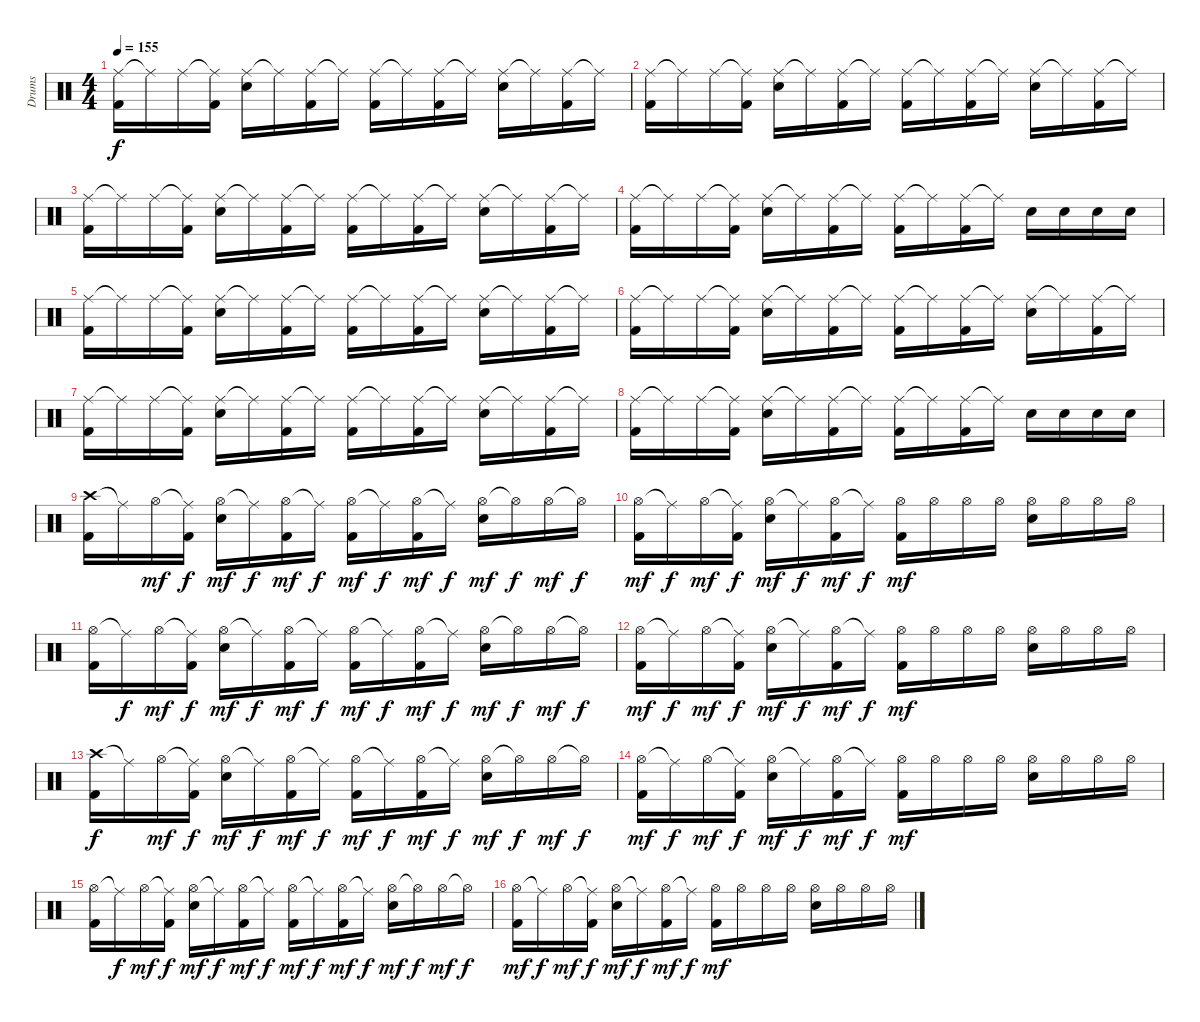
\track ("Drums" "Drums") {instrument percussion}
\staff {score}
\articulation defaults
\ts (4 4)
\tempo 155
\clef neutral
\ks c
("Ride (middle)" "Kick (hit) 2").16{dy f} "Ride (middle)"{t}.16 "Ride (middle)".16 ("Ride (middle)"{t} "Kick (hit) 2").16 ("Ride (middle)" "Electric Snare (hit)").16 "Ride (middle)"{t}.16 ("Ride (middle)" "Kick (hit) 2").16 "Ride (middle)"{t}.16 ("Ride (middle)" "Kick (hit) 2").16 "Ride (middle)"{t}.16 ("Ride (middle)" "Kick (hit) 2").16 "Ride (middle)"{t}.16 ("Ride (middle)" "Electric Snare (hit)").16 "Ride (middle)"{t}.16 ("Ride (middle)" "Kick (hit) 2").16 "Ride (middle)"{t}.16 |
("Ride (middle)" "Kick (hit) 2").16 "Ride (middle)"{t}.16 "Ride (middle)".16 ("Ride (middle)"{t} "Kick (hit) 2").16 ("Ride (middle)" "Electric Snare (hit)").16 "Ride (middle)"{t}.16 ("Ride (middle)" "Kick (hit) 2").16 "Ride (middle)"{t}.16 ("Ride (middle)" "Kick (hit) 2").16 "Ride (middle)"{t}.16 ("Ride (middle)" "Kick (hit) 2").16 "Ride (middle)"{t}.16 ("Ride (middle)" "Electric Snare (hit)").16 "Ride (middle)"{t}.16 ("Ride (middle)" "Kick (hit) 2").16 "Ride (middle)"{t}.16 |
("Ride (middle)" "Kick (hit) 2").16 "Ride (middle)"{t}.16 "Ride (middle)".16 ("Ride (middle)"{t} "Kick (hit) 2").16 ("Ride (middle)" "Electric Snare (hit)").16 "Ride (middle)"{t}.16 ("Ride (middle)" "Kick (hit) 2").16 "Ride (middle)"{t}.16 ("Ride (middle)" "Kick (hit) 2").16 "Ride (middle)"{t}.16 ("Ride (middle)" "Kick (hit) 2").16 "Ride (middle)"{t}.16 ("Ride (middle)" "Electric Snare (hit)").16 "Ride (middle)"{t}.16 ("Ride (middle)" "Kick (hit) 2").16 "Ride (middle)"{t}.16 |
("Ride (middle)" "Kick (hit) 2").16 "Ride (middle)"{t}.16 "Ride (middle)".16 ("Ride (middle)"{t} "Kick (hit) 2").16 ("Ride (middle)" "Electric Snare (hit)").16 "Ride (middle)"{t}.16 ("Ride (middle)" "Kick (hit) 2").16 "Ride (middle)"{t}.16 ("Ride (middle)" "Kick (hit) 2").16 "Ride (middle)"{t}.16 ("Ride (middle)" "Kick (hit) 2").16 "Ride (middle)"{t}.16 "Electric Snare (hit)".16 "Electric Snare (hit)".16 "Electric Snare (hit)".16 "Electric Snare (hit)".16 |
("Ride (middle)" "Kick (hit) 2").16 "Ride (middle)"{t}.16 "Ride (middle)".16 ("Ride (middle)"{t} "Kick (hit) 2").16 ("Ride (middle)" "Electric Snare (hit)").16 "Ride (middle)"{t}.16 ("Ride (middle)" "Kick (hit) 2").16 "Ride (middle)"{t}.16 ("Ride (middle)" "Kick (hit) 2").16 "Ride (middle)"{t}.16 ("Ride (middle)" "Kick (hit) 2").16 "Ride (middle)"{t}.16 ("Ride (middle)" "Electric Snare (hit)").16 "Ride (middle)"{t}.16 ("Ride (middle)" "Kick (hit) 2").16 "Ride (middle)"{t}.16 |
("Ride (middle)" "Kick (hit) 2").16 "Ride (middle)"{t}.16 "Ride (middle)".16 ("Ride (middle)"{t} "Kick (hit) 2").16 ("Ride (middle)" "Electric Snare (hit)").16 "Ride (middle)"{t}.16 ("Ride (middle)" "Kick (hit) 2").16 "Ride (middle)"{t}.16 ("Ride (middle)" "Kick (hit) 2").16 "Ride (middle)"{t}.16 ("Ride (middle)" "Kick (hit) 2").16 "Ride (middle)"{t}.16 ("Ride (middle)" "Electric Snare (hit)").16 "Ride (middle)"{t}.16 ("Ride (middle)" "Kick (hit) 2").16 "Ride (middle)"{t}.16 |
("Ride (middle)" "Kick (hit) 2").16 "Ride (middle)"{t}.16 "Ride (middle)".16 ("Ride (middle)"{t} "Kick (hit) 2").16 ("Ride (middle)" "Electric Snare (hit)").16 "Ride (middle)"{t}.16 ("Ride (middle)" "Kick (hit) 2").16 "Ride (middle)"{t}.16 ("Ride (middle)" "Kick (hit) 2").16 "Ride (middle)"{t}.16 ("Ride (middle)" "Kick (hit) 2").16 "Ride (middle)"{t}.16 ("Ride (middle)" "Electric Snare (hit)").16 "Ride (middle)"{t}.16 ("Ride (middle)" "Kick (hit) 2").16 "Ride (middle)"{t}.16 |
("Ride (middle)" "Kick (hit) 2").16 "Ride (middle)"{t}.16 "Ride (middle)".16 ("Ride (middle)"{t} "Kick (hit) 2").16 ("Ride (middle)" "Electric Snare (hit)").16 "Ride (middle)"{t}.16 ("Ride (middle)" "Kick (hit) 2").16 "Ride (middle)"{t}.16 ("Ride (middle)" "Kick (hit) 2").16 "Ride (middle)"{t}.16 ("Ride (middle)" "Kick (hit) 2").16 "Ride (middle)"{t}.16 "Electric Snare (hit)".16 "Electric Snare (hit)".16 "Electric Snare (hit)".16 "Electric Snare (hit)".16 |
("Crash high (hit)" "Kick (hit) 2").16 "Ride (middle)"{t}.16 "Hi-Hat (open)".16{dy mf} ("Ride (middle)"{t} "Kick (hit) 2").16{dy f} ("Hi-Hat (open)" "Electric Snare (hit)").16{dy mf} "Ride (middle)"{t}.16{dy f} ("Hi-Hat (open)" "Kick (hit) 2").16{dy mf} "Ride (middle)"{t}.16{dy f} ("Hi-Hat (open)" "Kick (hit) 2").16{dy mf} "Ride (middle)"{t}.16{dy f} ("Hi-Hat (open)" "Kick (hit) 2").16{dy mf} "Ride (middle)"{t}.16{dy f} ("Hi-Hat (open)" "Electric Snare (hit)").16{dy mf} "Hi-Hat (open)"{t}.16{dy f} "Hi-Hat (open)".16{dy mf} "Hi-Hat (open)"{t}.16{dy f} |
("Hi-Hat (open)" "Kick (hit) 2").16{dy mf} "Ride (middle)"{t}.16{dy f} "Hi-Hat (open)".16{dy mf} ("Ride (middle)"{t} "Kick (hit) 2").16{dy f} ("Hi-Hat (open)" "Electric Snare (hit)").16{dy mf} "Ride (middle)"{t}.16{dy f} ("Hi-Hat (open)" "Kick (hit) 2").16{dy mf} "Ride (middle)"{t}.16{dy f} ("Hi-Hat (open)" "Kick (hit) 2").16{dy mf} "Hi-Hat (open)".16 "Hi-Hat (open)".16 "Hi-Hat (open)".16 ("Hi-Hat (open)" "Electric Snare (hit)").16 "Hi-Hat (open)".16 "Hi-Hat (open)".16 "Hi-Hat (open)".16 |
("Hi-Hat (open)" "Kick (hit) 2").16 "Ride (middle)"{t}.16{dy f} "Hi-Hat (open)".16{dy mf} ("Ride (middle)"{t} "Kick (hit) 2").16{dy f} ("Hi-Hat (open)" "Electric Snare (hit)").16{dy mf} "Ride (middle)"{t}.16{dy f} ("Hi-Hat (open)" "Kick (hit) 2").16{dy mf} "Ride (middle)"{t}.16{dy f} ("Hi-Hat (open)" "Kick (hit) 2").16{dy mf} "Ride (middle)"{t}.16{dy f} ("Hi-Hat (open)" "Kick (hit) 2").16{dy mf} "Ride (middle)"{t}.16{dy f} ("Hi-Hat (open)" "Electric Snare (hit)").16{dy mf} "Hi-Hat (open)"{t}.16{dy f} "Hi-Hat (open)".16{dy mf} "Hi-Hat (open)"{t}.16{dy f} |
("Hi-Hat (open)" "Kick (hit) 2").16{dy mf} "Ride (middle)"{t}.16{dy f} "Hi-Hat (open)".16{dy mf} ("Ride (middle)"{t} "Kick (hit) 2").16{dy f} ("Hi-Hat (open)" "Electric Snare (hit)").16{dy mf} "Ride (middle)"{t}.16{dy f} ("Hi-Hat (open)" "Kick (hit) 2").16{dy mf} "Ride (middle)"{t}.16{dy f} ("Hi-Hat (open)" "Kick (hit) 2").16{dy mf} "Hi-Hat (open)".16 "Hi-Hat (open)".16 "Hi-Hat (open)".16 ("Hi-Hat (open)" "Electric Snare (hit)").16 "Hi-Hat (open)".16 "Hi-Hat (open)".16 "Hi-Hat (open)".16 |
("Crash high (hit)" "Kick (hit) 2").16{dy f} "Ride (middle)"{t}.16 "Hi-Hat (open)".16{dy mf} ("Ride (middle)"{t} "Kick (hit) 2").16{dy f} ("Hi-Hat (open)" "Electric Snare (hit)").16{dy mf} "Ride (middle)"{t}.16{dy f} ("Hi-Hat (open)" "Kick (hit) 2").16{dy mf} "Ride (middle)"{t}.16{dy f} ("Hi-Hat (open)" "Kick (hit) 2").16{dy mf} "Ride (middle)"{t}.16{dy f} ("Hi-Hat (open)" "Kick (hit) 2").16{dy mf} "Ride (middle)"{t}.16{dy f} ("Hi-Hat (open)" "Electric Snare (hit)").16{dy mf} "Hi-Hat (open)"{t}.16{dy f} "Hi-Hat (open)".16{dy mf} "Hi-Hat (open)"{t}.16{dy f} |
("Hi-Hat (open)" "Kick (hit) 2").16{dy mf} "Ride (middle)"{t}.16{dy f} "Hi-Hat (open)".16{dy mf} ("Ride (middle)"{t} "Kick (hit) 2").16{dy f} ("Hi-Hat (open)" "Electric Snare (hit)").16{dy mf} "Ride (middle)"{t}.16{dy f} ("Hi-Hat (open)" "Kick (hit) 2").16{dy mf} "Ride (middle)"{t}.16{dy f} ("Hi-Hat (open)" "Kick (hit) 2").16{dy mf} "Hi-Hat (open)".16 "Hi-Hat (open)".16 "Hi-Hat (open)".16 ("Hi-Hat (open)" "Electric Snare (hit)").16 "Hi-Hat (open)".16 "Hi-Hat (open)".16 "Hi-Hat (open)".16 |
("Hi-Hat (open)" "Kick (hit) 2").16 "Ride (middle)"{t}.16{dy f} "Hi-Hat (open)".16{dy mf} ("Ride (middle)"{t} "Kick (hit) 2").16{dy f} ("Hi-Hat (open)" "Electric Snare (hit)").16{dy mf} "Ride (middle)"{t}.16{dy f} ("Hi-Hat (open)" "Kick (hit) 2").16{dy mf} "Ride (middle)"{t}.16{dy f} ("Hi-Hat (open)" "Kick (hit) 2").16{dy mf} "Ride (middle)"{t}.16{dy f} ("Hi-Hat (open)" "Kick (hit) 2").16{dy mf} "Ride (middle)"{t}.16{dy f} ("Hi-Hat (open)" "Electric Snare (hit)").16{dy mf} "Hi-Hat (open)"{t}.16{dy f} "Hi-Hat (open)".16{dy mf} "Hi-Hat (open)"{t}.16{dy f} |
("Hi-Hat (open)" "Kick (hit) 2").16{dy mf} "Ride (middle)"{t}.16{dy f} "Hi-Hat (open)".16{dy mf} ("Ride (middle)"{t} "Kick (hit) 2").16{dy f} ("Hi-Hat (open)" "Electric Snare (hit)").16{dy mf} "Ride (middle)"{t}.16{dy f} ("Hi-Hat (open)" "Kick (hit) 2").16{dy mf} "Ride (middle)"{t}.16{dy f} ("Hi-Hat (open)" "Kick (hit) 2").16{dy mf} "Hi-Hat (open)".16 "Hi-Hat (open)".16 "Hi-Hat (open)".16 ("Hi-Hat (open)" "Electric Snare (hit)").16 "Hi-Hat (open)".16 "Hi-Hat (open)".16 "Hi-Hat (open)".16
